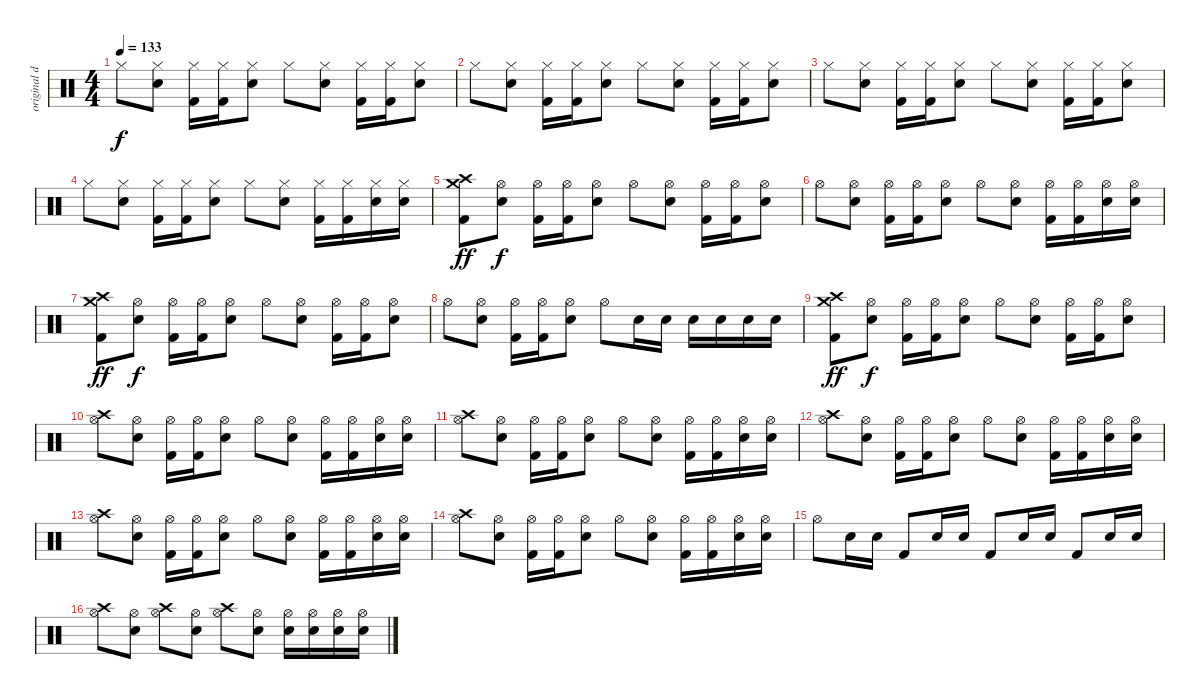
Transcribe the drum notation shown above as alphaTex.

\track ("original drums" "original d") {instrument percussion}
\staff {score}
\articulation defaults
\ts (4 4)
\tempo 133
\clef neutral
\ks c "Hi-Hat (closed)".8{dy f}
("Hi-Hat (closed)" "Electric Snare (hit)").8 ("Hi-Hat (closed)" "Kick (hit) 2").16 ("Hi-Hat (closed)" "Kick (hit) 2").16 ("Hi-Hat (closed)" "Electric Snare (hit)").8 "Hi-Hat (closed)".8 ("Hi-Hat (closed)" "Electric Snare (hit)").8 ("Hi-Hat (closed)" "Kick (hit) 2").16 ("Hi-Hat (closed)" "Kick (hit) 2").16 ("Hi-Hat (closed)" "Electric Snare (hit)").8 |
"Hi-Hat (closed)".8 ("Hi-Hat (closed)" "Electric Snare (hit)").8 ("Hi-Hat (closed)" "Kick (hit) 2").16 ("Hi-Hat (closed)" "Kick (hit) 2").16 ("Hi-Hat (closed)" "Electric Snare (hit)").8 "Hi-Hat (closed)".8 ("Hi-Hat (closed)" "Electric Snare (hit)").8 ("Hi-Hat (closed)" "Kick (hit) 2").16 ("Hi-Hat (closed)" "Kick (hit) 2").16 ("Hi-Hat (closed)" "Electric Snare (hit)").8 |
"Hi-Hat (closed)".8 ("Hi-Hat (closed)" "Electric Snare (hit)").8 ("Hi-Hat (closed)" "Kick (hit) 2").16 ("Hi-Hat (closed)" "Kick (hit) 2").16 ("Hi-Hat (closed)" "Electric Snare (hit)").8 "Hi-Hat (closed)".8 ("Hi-Hat (closed)" "Electric Snare (hit)").8 ("Hi-Hat (closed)" "Kick (hit) 2").16 ("Hi-Hat (closed)" "Kick (hit) 2").16 ("Hi-Hat (closed)" "Electric Snare (hit)").8 |
"Hi-Hat (closed)".8 ("Hi-Hat (closed)" "Electric Snare (hit)").8 ("Hi-Hat (closed)" "Kick (hit) 2").16 ("Hi-Hat (closed)" "Kick (hit) 2").16 ("Hi-Hat (closed)" "Electric Snare (hit)").8 "Hi-Hat (closed)".8 ("Hi-Hat (closed)" "Electric Snare (hit)").8 ("Hi-Hat (closed)" "Kick (hit) 2").16 ("Hi-Hat (closed)" "Kick (hit) 2").16 ("Hi-Hat (closed)" "Electric Snare (hit)").16 ("Hi-Hat (closed)" "Electric Snare (hit)").16 |
("Crash high (hit)" "Crash medium (hit)" "Kick (hit) 2").8{dy ff} ("Hi-Hat (open)" "Electric Snare (hit)").8{dy f} ("Hi-Hat (open)" "Kick (hit) 2").16 ("Hi-Hat (open)" "Kick (hit) 2").16 ("Hi-Hat (open)" "Electric Snare (hit)").8 "Hi-Hat (open)".8 ("Hi-Hat (open)" "Electric Snare (hit)").8 ("Hi-Hat (open)" "Kick (hit) 2").16 ("Hi-Hat (open)" "Kick (hit) 2").16 ("Hi-Hat (open)" "Electric Snare (hit)").8 |
"Hi-Hat (open)".8 ("Hi-Hat (open)" "Electric Snare (hit)").8 ("Hi-Hat (open)" "Kick (hit) 2").16 ("Hi-Hat (open)" "Kick (hit) 2").16 ("Hi-Hat (open)" "Electric Snare (hit)").8 "Hi-Hat (open)".8 ("Hi-Hat (open)" "Electric Snare (hit)").8 ("Hi-Hat (open)" "Kick (hit) 2").16 ("Hi-Hat (open)" "Kick (hit) 2").16 ("Hi-Hat (open)" "Electric Snare (hit)").16 ("Hi-Hat (open)" "Electric Snare (hit)").16 |
("Crash high (hit)" "Crash medium (hit)" "Kick (hit) 2").8{dy ff} ("Hi-Hat (open)" "Electric Snare (hit)").8{dy f} ("Hi-Hat (open)" "Kick (hit) 2").16 ("Hi-Hat (open)" "Kick (hit) 2").16 ("Hi-Hat (open)" "Electric Snare (hit)").8 "Hi-Hat (open)".8 ("Hi-Hat (open)" "Electric Snare (hit)").8 ("Hi-Hat (open)" "Kick (hit) 2").16 ("Hi-Hat (open)" "Kick (hit) 2").16 ("Hi-Hat (open)" "Electric Snare (hit)").8 |
"Hi-Hat (open)".8 ("Hi-Hat (open)" "Electric Snare (hit)").8 ("Hi-Hat (open)" "Kick (hit) 2").16 ("Hi-Hat (open)" "Kick (hit) 2").16 ("Hi-Hat (open)" "Electric Snare (hit)").8 "Hi-Hat (open)".8 "Electric Snare (hit)".16 "Electric Snare (hit)".16 "Electric Snare (hit)".16 "Electric Snare (hit)".16 "Electric Snare (hit)".16 "Electric Snare (hit)".16 |
("Crash high (hit)" "Crash medium (hit)" "Kick (hit) 2").8{dy ff} ("Hi-Hat (open)" "Electric Snare (hit)").8{dy f} ("Hi-Hat (open)" "Kick (hit) 2").16 ("Hi-Hat (open)" "Kick (hit) 2").16 ("Hi-Hat (open)" "Electric Snare (hit)").8 "Hi-Hat (open)".8 ("Hi-Hat (open)" "Electric Snare (hit)").8 ("Hi-Hat (open)" "Kick (hit) 2").16 ("Hi-Hat (open)" "Kick (hit) 2").16 ("Hi-Hat (open)" "Electric Snare (hit)").8 |
("Hi-Hat (open)" "Crash high (hit)").8 ("Hi-Hat (open)" "Electric Snare (hit)").8 ("Hi-Hat (open)" "Kick (hit) 2").16 ("Hi-Hat (open)" "Kick (hit) 2").16 ("Hi-Hat (open)" "Electric Snare (hit)").8 "Hi-Hat (open)".8 ("Hi-Hat (open)" "Electric Snare (hit)").8 ("Hi-Hat (open)" "Kick (hit) 2").16 ("Hi-Hat (open)" "Kick (hit) 2").16 ("Hi-Hat (open)" "Electric Snare (hit)").16 ("Hi-Hat (open)" "Electric Snare (hit)").16 |
("Hi-Hat (open)" "Crash high (hit)").8 ("Hi-Hat (open)" "Electric Snare (hit)").8 ("Hi-Hat (open)" "Kick (hit) 2").16 ("Hi-Hat (open)" "Kick (hit) 2").16 ("Hi-Hat (open)" "Electric Snare (hit)").8 "Hi-Hat (open)".8 ("Hi-Hat (open)" "Electric Snare (hit)").8 ("Hi-Hat (open)" "Kick (hit) 2").16 ("Hi-Hat (open)" "Kick (hit) 2").16 ("Hi-Hat (open)" "Electric Snare (hit)").16 ("Hi-Hat (open)" "Electric Snare (hit)").16 |
("Hi-Hat (open)" "Crash high (hit)").8 ("Hi-Hat (open)" "Electric Snare (hit)").8 ("Hi-Hat (open)" "Kick (hit) 2").16 ("Hi-Hat (open)" "Kick (hit) 2").16 ("Hi-Hat (open)" "Electric Snare (hit)").8 "Hi-Hat (open)".8 ("Hi-Hat (open)" "Electric Snare (hit)").8 ("Hi-Hat (open)" "Kick (hit) 2").16 ("Hi-Hat (open)" "Kick (hit) 2").16 ("Hi-Hat (open)" "Electric Snare (hit)").16 ("Hi-Hat (open)" "Electric Snare (hit)").16 |
("Hi-Hat (open)" "Crash high (hit)").8 ("Hi-Hat (open)" "Electric Snare (hit)").8 ("Hi-Hat (open)" "Kick (hit) 2").16 ("Hi-Hat (open)" "Kick (hit) 2").16 ("Hi-Hat (open)" "Electric Snare (hit)").8 "Hi-Hat (open)".8 ("Hi-Hat (open)" "Electric Snare (hit)").8 ("Hi-Hat (open)" "Kick (hit) 2").16 ("Hi-Hat (open)" "Kick (hit) 2").16 ("Hi-Hat (open)" "Electric Snare (hit)").16 ("Hi-Hat (open)" "Electric Snare (hit)").16 |
("Hi-Hat (open)" "Crash high (hit)").8 ("Hi-Hat (open)" "Electric Snare (hit)").8 ("Hi-Hat (open)" "Kick (hit) 2").16 ("Hi-Hat (open)" "Kick (hit) 2").16 ("Hi-Hat (open)" "Electric Snare (hit)").8 "Hi-Hat (open)".8 ("Hi-Hat (open)" "Electric Snare (hit)").8 ("Hi-Hat (open)" "Kick (hit) 2").16 ("Hi-Hat (open)" "Kick (hit) 2").16 ("Hi-Hat (open)" "Electric Snare (hit)").16 ("Hi-Hat (open)" "Electric Snare (hit)").16 |
"Hi-Hat (open)".8 "Electric Snare (hit)".16 "Electric Snare (hit)".16 "Kick (hit) 2".8 "Electric Snare (hit)".16 "Electric Snare (hit)".16 "Kick (hit) 2".8 "Electric Snare (hit)".16 "Electric Snare (hit)".16 "Kick (hit) 2".8 "Electric Snare (hit)".16 "Electric Snare (hit)".16 |
("Hi-Hat (open)" "Crash high (hit)").8 ("Hi-Hat (open)" "Electric Snare (hit)").8 ("Hi-Hat (open)" "Crash high (hit)").8 ("Hi-Hat (open)" "Electric Snare (hit)").8 ("Hi-Hat (open)" "Crash high (hit)").8 ("Hi-Hat (open)" "Electric Snare (hit)").8 ("Hi-Hat (open)" "Electric Snare (hit)").16 ("Hi-Hat (open)" "Electric Snare (hit)").16 ("Hi-Hat (open)" "Electric Snare (hit)").16 ("Hi-Hat (open)" "Electric Snare (hit)").16
